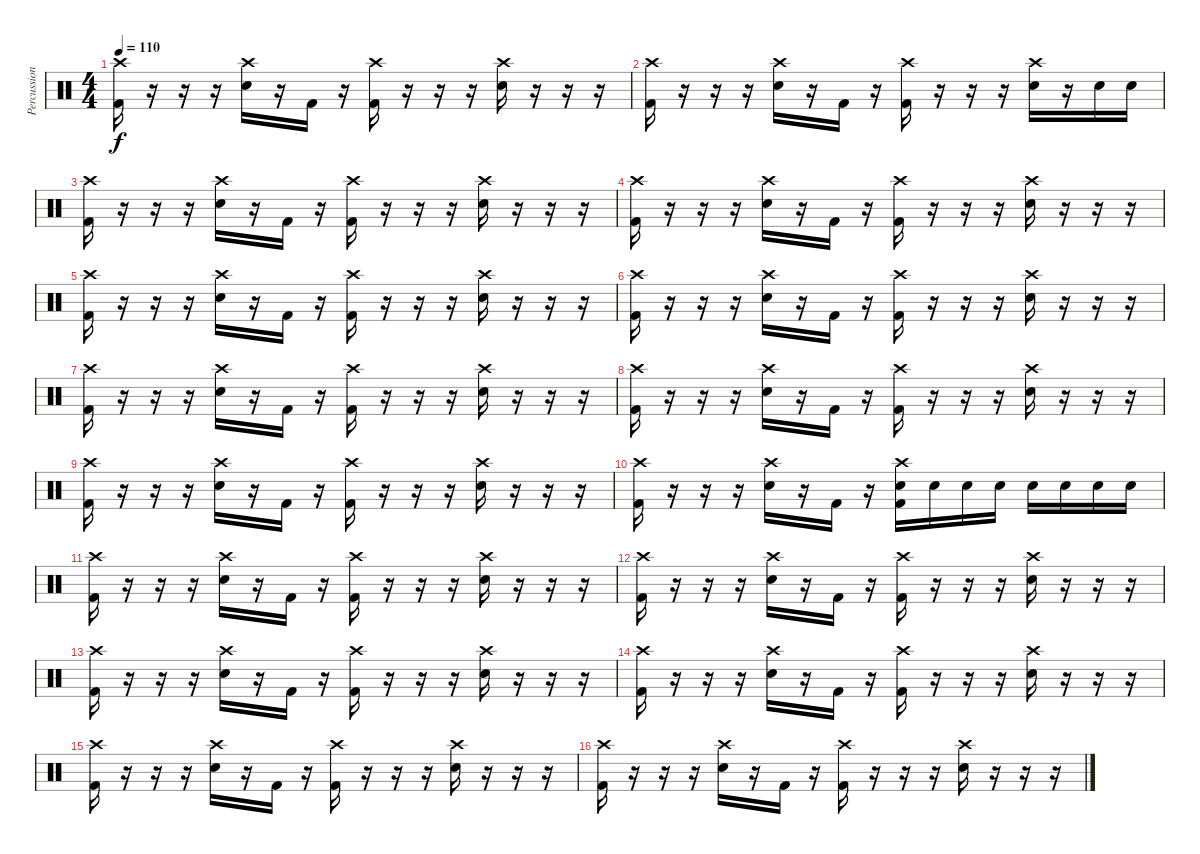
\track ("Percussions" "Percussion") {instrument percussion}
\staff {score}
\articulation defaults
\ts (4 4)
\tempo 110
\clef neutral
\ks c
("Crash high (hit)" "Kick (hit) 2").16{dy f} r.16 r.16 r.16 ("Crash high (hit)" "Electric Snare (hit)").16 r.16 "Kick (hit) 2".16 r.16 ("Crash high (hit)" "Kick (hit) 2").16 r.16 r.16 r.16 ("Crash high (hit)" "Electric Snare (hit)").16 r.16 r.16 r.16 |
("Crash high (hit)" "Kick (hit) 2").16 r.16 r.16 r.16 ("Crash high (hit)" "Electric Snare (hit)").16 r.16 "Kick (hit) 2".16 r.16 ("Crash high (hit)" "Kick (hit) 2").16 r.16 r.16 r.16 ("Crash high (hit)" "Electric Snare (hit)").16 r.16 "Electric Snare (hit)".16 "Electric Snare (hit)".16 |
("Crash high (hit)" "Kick (hit) 2").16 r.16 r.16 r.16 ("Crash high (hit)" "Electric Snare (hit)").16 r.16 "Kick (hit) 2".16 r.16 ("Crash high (hit)" "Kick (hit) 2").16 r.16 r.16 r.16 ("Crash high (hit)" "Electric Snare (hit)").16 r.16 r.16 r.16 |
("Crash high (hit)" "Kick (hit) 2").16 r.16 r.16 r.16 ("Crash high (hit)" "Electric Snare (hit)").16 r.16 "Kick (hit) 2".16 r.16 ("Crash high (hit)" "Kick (hit) 2").16 r.16 r.16 r.16 ("Crash high (hit)" "Electric Snare (hit)").16 r.16 r.16 r.16 |
("Crash high (hit)" "Kick (hit) 2").16 r.16 r.16 r.16 ("Crash high (hit)" "Electric Snare (hit)").16 r.16 "Kick (hit) 2".16 r.16 ("Crash high (hit)" "Kick (hit) 2").16 r.16 r.16 r.16 ("Crash high (hit)" "Electric Snare (hit)").16 r.16 r.16 r.16 |
("Crash high (hit)" "Kick (hit) 2").16 r.16 r.16 r.16 ("Crash high (hit)" "Electric Snare (hit)").16 r.16 "Kick (hit) 2".16 r.16 ("Crash high (hit)" "Kick (hit) 2").16 r.16 r.16 r.16 ("Crash high (hit)" "Electric Snare (hit)").16 r.16 r.16 r.16 |
("Crash high (hit)" "Kick (hit) 2").16 r.16 r.16 r.16 ("Crash high (hit)" "Electric Snare (hit)").16 r.16 "Kick (hit) 2".16 r.16 ("Crash high (hit)" "Kick (hit) 2").16 r.16 r.16 r.16 ("Crash high (hit)" "Electric Snare (hit)").16 r.16 r.16 r.16 |
("Crash high (hit)" "Kick (hit) 2").16 r.16 r.16 r.16 ("Crash high (hit)" "Electric Snare (hit)").16 r.16 "Kick (hit) 2".16 r.16 ("Crash high (hit)" "Kick (hit) 2").16 r.16 r.16 r.16 ("Crash high (hit)" "Electric Snare (hit)").16 r.16 r.16 r.16 |
("Crash high (hit)" "Kick (hit) 2").16 r.16 r.16 r.16 ("Crash high (hit)" "Electric Snare (hit)").16 r.16 "Kick (hit) 2".16 r.16 ("Crash high (hit)" "Kick (hit) 2").16 r.16 r.16 r.16 ("Crash high (hit)" "Electric Snare (hit)").16 r.16 r.16 r.16 |
("Crash high (hit)" "Kick (hit) 2").16 r.16 r.16 r.16 ("Crash high (hit)" "Electric Snare (hit)").16 r.16 "Kick (hit) 2".16 r.16 ("Crash high (hit)" "Electric Snare (hit)" "Kick (hit) 2").16 "Electric Snare (hit)".16 "Electric Snare (hit)".16 "Electric Snare (hit)".16 "Electric Snare (hit)".16 "Electric Snare (hit)".16 "Electric Snare (hit)".16 "Electric Snare (hit)".16 |
("Crash high (hit)" "Kick (hit) 2").16 r.16 r.16 r.16 ("Crash high (hit)" "Electric Snare (hit)").16 r.16 "Kick (hit) 2".16 r.16 ("Crash high (hit)" "Kick (hit) 2").16 r.16 r.16 r.16 ("Crash high (hit)" "Electric Snare (hit)").16 r.16 r.16 r.16 |
("Crash high (hit)" "Kick (hit) 2").16 r.16 r.16 r.16 ("Crash high (hit)" "Electric Snare (hit)").16 r.16 "Kick (hit) 2".16 r.16 ("Crash high (hit)" "Kick (hit) 2").16 r.16 r.16 r.16 ("Crash high (hit)" "Electric Snare (hit)").16 r.16 r.16 r.16 |
("Crash high (hit)" "Kick (hit) 2").16 r.16 r.16 r.16 ("Crash high (hit)" "Electric Snare (hit)").16 r.16 "Kick (hit) 2".16 r.16 ("Crash high (hit)" "Kick (hit) 2").16 r.16 r.16 r.16 ("Crash high (hit)" "Electric Snare (hit)").16 r.16 r.16 r.16 |
("Crash high (hit)" "Kick (hit) 2").16 r.16 r.16 r.16 ("Crash high (hit)" "Electric Snare (hit)").16 r.16 "Kick (hit) 2".16 r.16 ("Crash high (hit)" "Kick (hit) 2").16 r.16 r.16 r.16 ("Crash high (hit)" "Electric Snare (hit)").16 r.16 r.16 r.16 |
("Crash high (hit)" "Kick (hit) 2").16 r.16 r.16 r.16 ("Crash high (hit)" "Electric Snare (hit)").16 r.16 "Kick (hit) 2".16 r.16 ("Crash high (hit)" "Kick (hit) 2").16 r.16 r.16 r.16 ("Crash high (hit)" "Electric Snare (hit)").16 r.16 r.16 r.16 |
("Crash high (hit)" "Kick (hit) 2").16 r.16 r.16 r.16 ("Crash high (hit)" "Electric Snare (hit)").16 r.16 "Kick (hit) 2".16 r.16 ("Crash high (hit)" "Kick (hit) 2").16 r.16 r.16 r.16 ("Crash high (hit)" "Electric Snare (hit)").16 r.16 r.16 r.16
